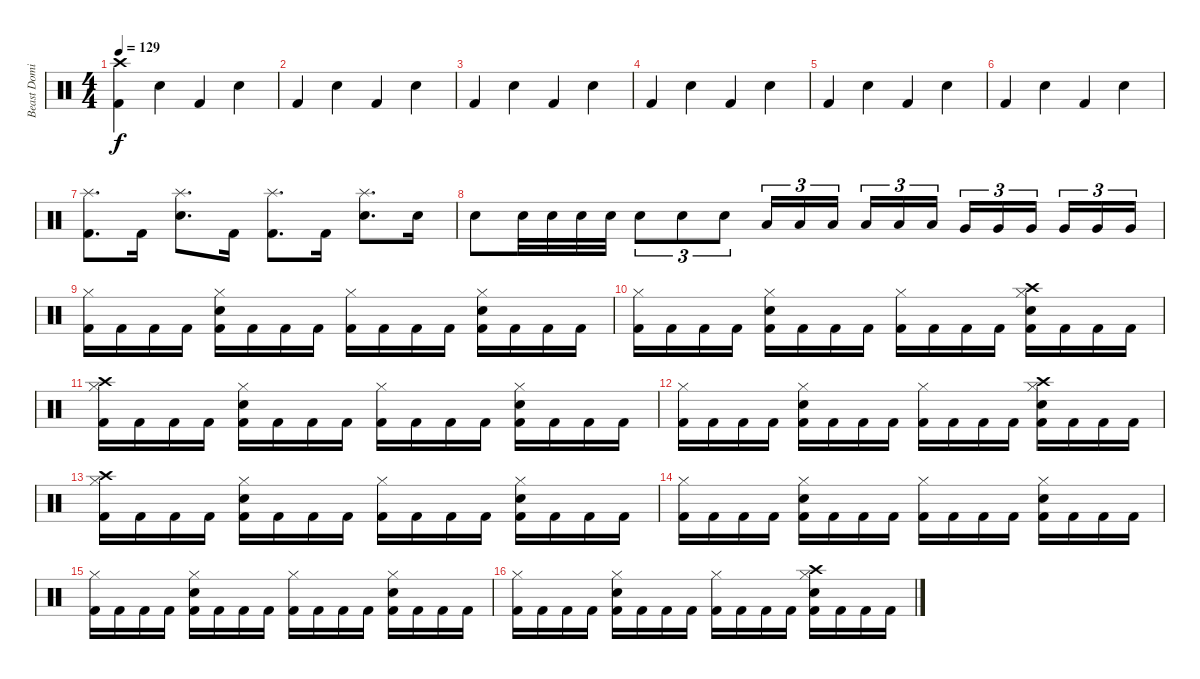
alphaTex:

\track ("Beast Dominator" "Beast Domi") {instrument percussion}
\staff
\articulation defaults
\ts (4 4)
\tempo 129
\clef neutral
\ks c
("Crash high (hit)" "Kick (hit) 2").4{dy f} "Snare (hit) 2".4 "Kick (hit) 2".4 "Snare (hit) 2".4 |
"Kick (hit) 2".4 "Snare (hit) 2".4 "Kick (hit) 2".4 "Electric Snare (hit)".4 |
"Kick (hit) 2".4 "Snare (hit) 2".4 "Kick (hit) 2".4 "Snare (hit) 2".4 |
"Kick (hit) 2".4 "Snare (hit) 2".4 "Kick (hit) 2".4 "Electric Snare (hit)".4 |
"Kick (hit) 2".4 "Snare (hit) 2".4 "Kick (hit) 2".4 "Snare (hit) 2".4 |
"Kick (hit) 2".4 "Snare (hit) 2".4 "Kick (hit) 2".4 "Electric Snare (hit)".4 |
("Splash (hit)" "Kick (hit) 2").8{d} "Kick (hit) 2".16 ("Splash (hit)" "Electric Snare (hit)").8{d} "Kick (hit) 2".16 ("Splash (hit)" "Kick (hit) 2").8{d} "Kick (hit) 2".16 ("Splash (hit)" "Electric Snare (hit)").8{d} "Electric Snare (hit)".16 |
"Electric Snare (hit)".8 "Electric Snare (hit)".32 "Electric Snare (hit)".32 "Electric Snare (hit)".32 "Electric Snare (hit)".32 "Electric Snare (hit)".8{tu (3 2)} "Electric Snare (hit)".8{tu (3 2)} "Electric Snare (hit)".8{tu (3 2)} "Low Tom (hit)".16{tu (3 2)} "Low Tom (hit)".16{tu (3 2)} "Low Tom (hit)".16{tu (3 2) beam splitsecondary} "Low Tom (hit)".16{tu (3 2)} "Low Tom (hit)".16{tu (3 2)} "Low Tom (hit)".16{tu (3 2)} "Very Low Tom (hit)".16{tu (3 2)} "Very Low Tom (hit)".16{tu (3 2)} "Very Low Tom (hit)".16{tu (3 2) beam splitsecondary} "Very Low Tom (hit)".16{tu (3 2)} "Very Low Tom (hit)".16{tu (3 2)} "Very Low Tom (hit)".16{tu (3 2)} |
("Hi-Hat (closed)" "Kick (hit) 2").16 "Kick (hit) 2".16 "Kick (hit) 2".16 "Kick (hit) 2".16 ("Hi-Hat (closed)" "Snare (hit) 2" "Kick (hit) 2").16 "Kick (hit) 2".16 "Kick (hit) 2".16 "Kick (hit) 2".16 ("Hi-Hat (closed)" "Kick (hit) 2").16 "Kick (hit) 2".16 "Kick (hit) 2".16 "Kick (hit) 2".16 ("Hi-Hat (closed)" "Snare (hit) 2" "Kick (hit) 2").16 "Kick (hit) 2".16 "Kick (hit) 2".16 "Kick (hit) 2".16 |
("Hi-Hat (closed)" "Kick (hit) 2").16 "Kick (hit) 2".16 "Kick (hit) 2".16 "Kick (hit) 2".16 ("Hi-Hat (closed)" "Snare (hit) 2" "Kick (hit) 2").16 "Kick (hit) 2".16 "Kick (hit) 2".16 "Kick (hit) 2".16 ("Hi-Hat (closed)" "Kick (hit) 2").16 "Kick (hit) 2".16 "Kick (hit) 2".16 "Kick (hit) 2".16 ("Crash high (hit)" "Hi-Hat (closed)" "Snare (hit) 2" "Kick (hit) 2").16 "Kick (hit) 2".16 "Kick (hit) 2".16 "Kick (hit) 2".16 |
("Crash high (hit)" "Hi-Hat (closed)" "Kick (hit) 2").16 "Kick (hit) 2".16 "Kick (hit) 2".16 "Kick (hit) 2".16 ("Hi-Hat (closed)" "Snare (hit) 2" "Kick (hit) 2").16 "Kick (hit) 2".16 "Kick (hit) 2".16 "Kick (hit) 2".16 ("Hi-Hat (closed)" "Kick (hit) 2").16 "Kick (hit) 2".16 "Kick (hit) 2".16 "Kick (hit) 2".16 ("Hi-Hat (closed)" "Snare (hit) 2" "Kick (hit) 2").16 "Kick (hit) 2".16 "Kick (hit) 2".16 "Kick (hit) 2".16 |
("Hi-Hat (closed)" "Kick (hit) 2").16 "Kick (hit) 2".16 "Kick (hit) 2".16 "Kick (hit) 2".16 ("Hi-Hat (closed)" "Snare (hit) 2" "Kick (hit) 2").16 "Kick (hit) 2".16 "Kick (hit) 2".16 "Kick (hit) 2".16 ("Hi-Hat (closed)" "Kick (hit) 2").16 "Kick (hit) 2".16 "Kick (hit) 2".16 "Kick (hit) 2".16 ("Crash high (hit)" "Hi-Hat (closed)" "Snare (hit) 2" "Kick (hit) 2").16 "Kick (hit) 2".16 "Kick (hit) 2".16 "Kick (hit) 2".16 |
("Crash high (hit)" "Hi-Hat (closed)" "Kick (hit) 2").16 "Kick (hit) 2".16 "Kick (hit) 2".16 "Kick (hit) 2".16 ("Hi-Hat (closed)" "Snare (hit) 2" "Kick (hit) 2").16 "Kick (hit) 2".16 "Kick (hit) 2".16 "Kick (hit) 2".16 ("Hi-Hat (closed)" "Kick (hit) 2").16 "Kick (hit) 2".16 "Kick (hit) 2".16 "Kick (hit) 2".16 ("Hi-Hat (closed)" "Snare (hit) 2" "Kick (hit) 2").16 "Kick (hit) 2".16 "Kick (hit) 2".16 "Kick (hit) 2".16 |
("Hi-Hat (closed)" "Kick (hit) 2").16 "Kick (hit) 2".16 "Kick (hit) 2".16 "Kick (hit) 2".16 ("Hi-Hat (closed)" "Snare (hit) 2" "Kick (hit) 2").16 "Kick (hit) 2".16 "Kick (hit) 2".16 "Kick (hit) 2".16 ("Hi-Hat (closed)" "Kick (hit) 2").16 "Kick (hit) 2".16 "Kick (hit) 2".16 "Kick (hit) 2".16 ("Hi-Hat (closed)" "Snare (hit) 2" "Kick (hit) 2").16 "Kick (hit) 2".16 "Kick (hit) 2".16 "Kick (hit) 2".16 |
("Hi-Hat (closed)" "Kick (hit) 2").16 "Kick (hit) 2".16 "Kick (hit) 2".16 "Kick (hit) 2".16 ("Hi-Hat (closed)" "Snare (hit) 2" "Kick (hit) 2").16 "Kick (hit) 2".16 "Kick (hit) 2".16 "Kick (hit) 2".16 ("Hi-Hat (closed)" "Kick (hit) 2").16 "Kick (hit) 2".16 "Kick (hit) 2".16 "Kick (hit) 2".16 ("Hi-Hat (closed)" "Snare (hit) 2" "Kick (hit) 2").16 "Kick (hit) 2".16 "Kick (hit) 2".16 "Kick (hit) 2".16 |
("Hi-Hat (closed)" "Kick (hit) 2").16 "Kick (hit) 2".16 "Kick (hit) 2".16 "Kick (hit) 2".16 ("Hi-Hat (closed)" "Snare (hit) 2" "Kick (hit) 2").16 "Kick (hit) 2".16 "Kick (hit) 2".16 "Kick (hit) 2".16 ("Hi-Hat (closed)" "Kick (hit) 2").16 "Kick (hit) 2".16 "Kick (hit) 2".16 "Kick (hit) 2".16 ("Crash high (hit)" "Hi-Hat (closed)" "Snare (hit) 2" "Kick (hit) 2").16 "Kick (hit) 2".16 "Kick (hit) 2".16 "Kick (hit) 2".16
